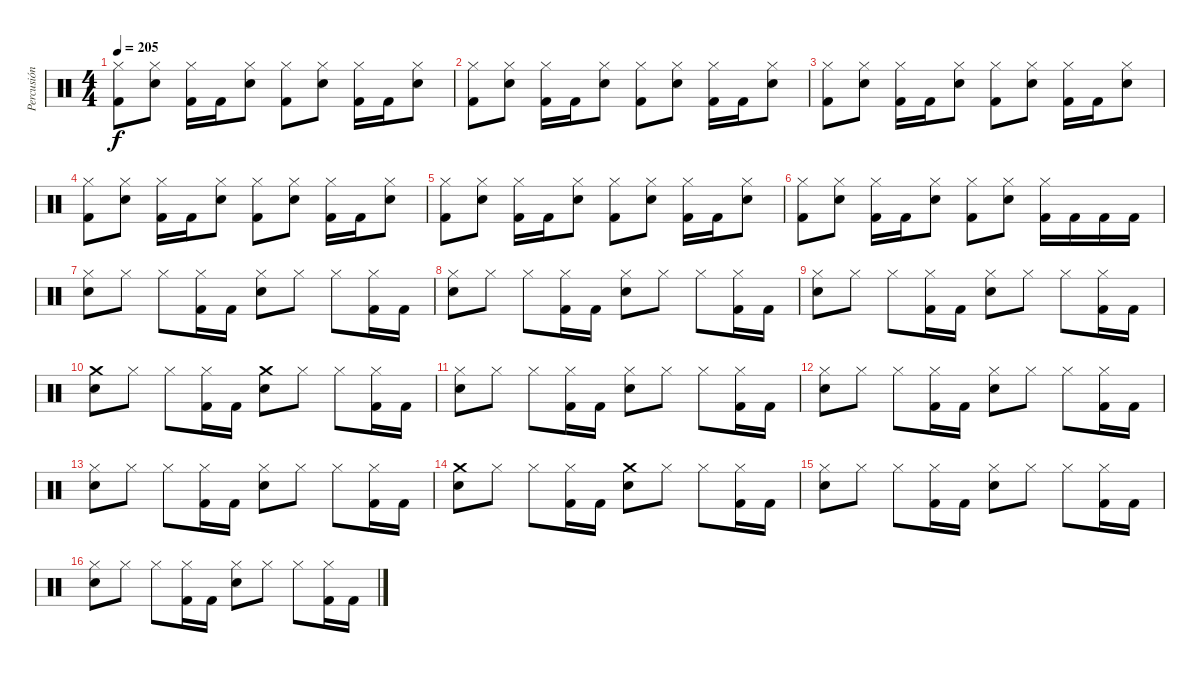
\track ("Percusión" "Percusión") {instrument percussion}
\staff {score}
\articulation defaults
\ts (4 4)
\tempo 205
\clef neutral
\ks c
("Hi-Hat (closed)" "Kick (hit) 2").8{dy f} ("Hi-Hat (closed)" "Snare (hit) 2").8 ("Hi-Hat (closed)" "Kick (hit) 2").16 "Kick (hit) 2".16 ("Hi-Hat (closed)" "Snare (hit) 2").8 ("Hi-Hat (closed)" "Kick (hit) 2").8 ("Hi-Hat (closed)" "Snare (hit) 2").8 ("Hi-Hat (closed)" "Kick (hit) 2").16 "Kick (hit) 2".16 ("Hi-Hat (closed)" "Snare (hit) 2").8 |
("Hi-Hat (closed)" "Kick (hit) 2").8 ("Hi-Hat (closed)" "Snare (hit) 2").8 ("Hi-Hat (closed)" "Kick (hit) 2").16 "Kick (hit) 2".16 ("Hi-Hat (closed)" "Snare (hit) 2").8 ("Hi-Hat (closed)" "Kick (hit) 2").8 ("Hi-Hat (closed)" "Snare (hit) 2").8 ("Hi-Hat (closed)" "Kick (hit) 2").16 "Kick (hit) 2".16 ("Hi-Hat (closed)" "Snare (hit) 2").8 |
("Hi-Hat (closed)" "Kick (hit) 2").8 ("Hi-Hat (closed)" "Snare (hit) 2").8 ("Hi-Hat (closed)" "Kick (hit) 2").16 "Kick (hit) 2".16 ("Hi-Hat (closed)" "Snare (hit) 2").8 ("Hi-Hat (closed)" "Kick (hit) 2").8 ("Hi-Hat (closed)" "Snare (hit) 2").8 ("Hi-Hat (closed)" "Kick (hit) 2").16 "Kick (hit) 2".16 ("Hi-Hat (closed)" "Snare (hit) 2").8 |
("Hi-Hat (closed)" "Kick (hit) 2").8 ("Hi-Hat (closed)" "Snare (hit) 2").8 ("Hi-Hat (closed)" "Kick (hit) 2").16 "Kick (hit) 2".16 ("Hi-Hat (closed)" "Snare (hit) 2").8 ("Hi-Hat (closed)" "Kick (hit) 2").8 ("Hi-Hat (closed)" "Snare (hit) 2").8 ("Hi-Hat (closed)" "Kick (hit) 2").16 "Kick (hit) 2".16 ("Hi-Hat (closed)" "Snare (hit) 2").8 |
("Hi-Hat (closed)" "Kick (hit) 2").8 ("Hi-Hat (closed)" "Snare (hit) 2").8 ("Hi-Hat (closed)" "Kick (hit) 2").16 "Kick (hit) 2".16 ("Hi-Hat (closed)" "Snare (hit) 2").8 ("Hi-Hat (closed)" "Kick (hit) 2").8 ("Hi-Hat (closed)" "Snare (hit) 2").8 ("Hi-Hat (closed)" "Kick (hit) 2").16 "Kick (hit) 2".16 ("Hi-Hat (closed)" "Snare (hit) 2").8 |
("Hi-Hat (closed)" "Kick (hit) 2").8 ("Hi-Hat (closed)" "Snare (hit) 2").8 ("Hi-Hat (closed)" "Kick (hit) 2").16 "Kick (hit) 2".16 ("Hi-Hat (closed)" "Snare (hit) 2").8 ("Hi-Hat (closed)" "Kick (hit) 2").8 ("Hi-Hat (closed)" "Snare (hit) 2").8 ("Hi-Hat (closed)" "Kick (hit) 2").16 "Kick (hit) 2".16 "Kick (hit) 2".16 "Kick (hit) 2".16 |
("Snare (hit) 2" "Hi-Hat (closed)").8 "Hi-Hat (closed)".8 "Hi-Hat (closed)".8 ("Hi-Hat (closed)" "Kick (hit) 2").16 "Kick (hit) 2".16 ("Hi-Hat (closed)" "Snare (hit) 2").8 "Hi-Hat (closed)".8 "Hi-Hat (closed)".8 ("Hi-Hat (closed)" "Kick (hit) 2").16 "Kick (hit) 2".16 |
("Snare (hit) 2" "Hi-Hat (closed)").8 "Hi-Hat (closed)".8 "Hi-Hat (closed)".8 ("Hi-Hat (closed)" "Kick (hit) 2").16 "Kick (hit) 2".16 ("Hi-Hat (closed)" "Snare (hit) 2").8 "Hi-Hat (closed)".8 "Hi-Hat (closed)".8 ("Hi-Hat (closed)" "Kick (hit) 2").16 "Kick (hit) 2".16 |
("Snare (hit) 2" "Hi-Hat (closed)").8 "Hi-Hat (closed)".8 "Hi-Hat (closed)".8 ("Hi-Hat (closed)" "Kick (hit) 2").16 "Kick (hit) 2".16 ("Hi-Hat (closed)" "Snare (hit) 2").8 "Hi-Hat (closed)".8 "Hi-Hat (closed)".8 ("Hi-Hat (closed)" "Kick (hit) 2").16 "Kick (hit) 2".16 |
("Snare (hit) 2" "Crash medium (hit)").8 "Hi-Hat (closed)".8 "Hi-Hat (closed)".8 ("Hi-Hat (closed)" "Kick (hit) 2").16 "Kick (hit) 2".16 ("Snare (hit) 2" "Crash medium (hit)").8 "Hi-Hat (closed)".8 "Hi-Hat (closed)".8 ("Hi-Hat (closed)" "Kick (hit) 2").16 "Kick (hit) 2".16 |
("Snare (hit) 2" "Hi-Hat (closed)").8 "Hi-Hat (closed)".8 "Hi-Hat (closed)".8 ("Hi-Hat (closed)" "Kick (hit) 2").16 "Kick (hit) 2".16 ("Hi-Hat (closed)" "Snare (hit) 2").8 "Hi-Hat (closed)".8 "Hi-Hat (closed)".8 ("Hi-Hat (closed)" "Kick (hit) 2").16 "Kick (hit) 2".16 |
("Snare (hit) 2" "Hi-Hat (closed)").8 "Hi-Hat (closed)".8 "Hi-Hat (closed)".8 ("Hi-Hat (closed)" "Kick (hit) 2").16 "Kick (hit) 2".16 ("Hi-Hat (closed)" "Snare (hit) 2").8 "Hi-Hat (closed)".8 "Hi-Hat (closed)".8 ("Hi-Hat (closed)" "Kick (hit) 2").16 "Kick (hit) 2".16 |
("Snare (hit) 2" "Hi-Hat (closed)").8 "Hi-Hat (closed)".8 "Hi-Hat (closed)".8 ("Hi-Hat (closed)" "Kick (hit) 2").16 "Kick (hit) 2".16 ("Hi-Hat (closed)" "Snare (hit) 2").8 "Hi-Hat (closed)".8 "Hi-Hat (closed)".8 ("Hi-Hat (closed)" "Kick (hit) 2").16 "Kick (hit) 2".16 |
("Snare (hit) 2" "Crash medium (hit)").8 "Hi-Hat (closed)".8 "Hi-Hat (closed)".8 ("Hi-Hat (closed)" "Kick (hit) 2").16 "Kick (hit) 2".16 ("Snare (hit) 2" "Crash medium (hit)").8 "Hi-Hat (closed)".8 "Hi-Hat (closed)".8 ("Hi-Hat (closed)" "Kick (hit) 2").16 "Kick (hit) 2".16 |
("Snare (hit) 2" "Hi-Hat (closed)").8 "Hi-Hat (closed)".8 "Hi-Hat (closed)".8 ("Hi-Hat (closed)" "Kick (hit) 2").16 "Kick (hit) 2".16 ("Hi-Hat (closed)" "Snare (hit) 2").8 "Hi-Hat (closed)".8 "Hi-Hat (closed)".8 ("Hi-Hat (closed)" "Kick (hit) 2").16 "Kick (hit) 2".16 |
("Snare (hit) 2" "Hi-Hat (closed)").8 "Hi-Hat (closed)".8 "Hi-Hat (closed)".8 ("Hi-Hat (closed)" "Kick (hit) 2").16 "Kick (hit) 2".16 ("Hi-Hat (closed)" "Snare (hit) 2").8 "Hi-Hat (closed)".8 "Hi-Hat (closed)".8 ("Hi-Hat (closed)" "Kick (hit) 2").16 "Kick (hit) 2".16
